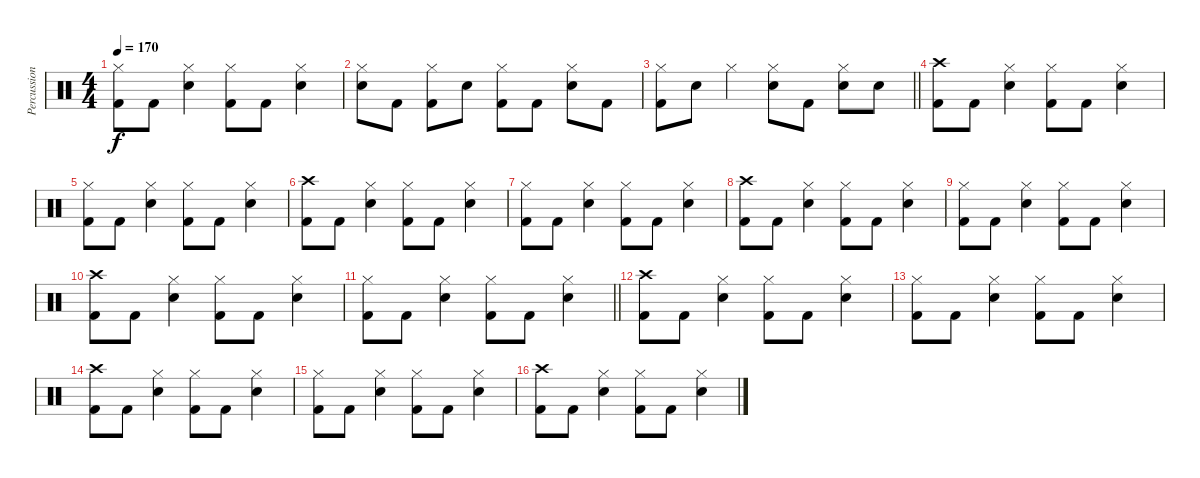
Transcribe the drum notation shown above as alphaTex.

\track ("Percussion" "Percussion") {instrument percussion}
\staff {score}
\articulation defaults
\ts (4 4)
\tempo 170
\clef neutral
\ks c
("Hi-Hat (closed)" "Kick (hit) 2").8{dy f} "Kick (hit) 2".8 ("Hi-Hat (closed)" "Electric Snare (hit)").4 ("Hi-Hat (closed)" "Kick (hit) 2").8 "Kick (hit) 2".8 ("Hi-Hat (closed)" "Electric Snare (hit)").4 |
("Hi-Hat (closed)" "Electric Snare (hit)").8 "Kick (hit) 2".8 ("Hi-Hat (closed)" "Kick (hit) 2").8 "Electric Snare (hit)".8 ("Hi-Hat (closed)" "Kick (hit) 2").8 "Kick (hit) 2".8 ("Hi-Hat (closed)" "Electric Snare (hit)").8 "Kick (hit) 2".8 |
\barLineRight lightlight
("Hi-Hat (closed)" "Kick (hit) 2").8 "Electric Snare (hit)".8 "Hi-Hat (closed)".4 ("Hi-Hat (closed)" "Electric Snare (hit)").8 "Kick (hit) 2".8 ("Hi-Hat (closed)" "Electric Snare (hit)").8 "Electric Snare (hit)".8 |
("Crash high (hit)" "Kick (hit) 2").8 "Kick (hit) 2".8 ("Hi-Hat (closed)" "Electric Snare (hit)").4 ("Hi-Hat (closed)" "Kick (hit) 2").8 "Kick (hit) 2".8 ("Hi-Hat (closed)" "Electric Snare (hit)").4 |
("Hi-Hat (closed)" "Kick (hit) 2").8 "Kick (hit) 2".8 ("Hi-Hat (closed)" "Electric Snare (hit)").4 ("Hi-Hat (closed)" "Kick (hit) 2").8 "Kick (hit) 2".8 ("Hi-Hat (closed)" "Electric Snare (hit)").4 |
("Crash high (hit)" "Kick (hit) 2").8 "Kick (hit) 2".8 ("Hi-Hat (closed)" "Electric Snare (hit)").4 ("Hi-Hat (closed)" "Kick (hit) 2").8 "Kick (hit) 2".8 ("Hi-Hat (closed)" "Electric Snare (hit)").4 |
("Hi-Hat (closed)" "Kick (hit) 2").8 "Kick (hit) 2".8 ("Hi-Hat (closed)" "Electric Snare (hit)").4 ("Hi-Hat (closed)" "Kick (hit) 2").8 "Kick (hit) 2".8 ("Hi-Hat (closed)" "Electric Snare (hit)").4 |
("Crash high (hit)" "Kick (hit) 2").8 "Kick (hit) 2".8 ("Hi-Hat (closed)" "Electric Snare (hit)").4 ("Hi-Hat (closed)" "Kick (hit) 2").8 "Kick (hit) 2".8 ("Hi-Hat (closed)" "Electric Snare (hit)").4 |
("Hi-Hat (closed)" "Kick (hit) 2").8 "Kick (hit) 2".8 ("Hi-Hat (closed)" "Electric Snare (hit)").4 ("Hi-Hat (closed)" "Kick (hit) 2").8 "Kick (hit) 2".8 ("Hi-Hat (closed)" "Electric Snare (hit)").4 |
("Crash high (hit)" "Kick (hit) 2").8 "Kick (hit) 2".8 ("Hi-Hat (closed)" "Electric Snare (hit)").4 ("Hi-Hat (closed)" "Kick (hit) 2").8 "Kick (hit) 2".8 ("Hi-Hat (closed)" "Electric Snare (hit)").4 |
\barLineRight lightlight
("Hi-Hat (closed)" "Kick (hit) 2").8 "Kick (hit) 2".8 ("Hi-Hat (closed)" "Electric Snare (hit)").4 ("Hi-Hat (closed)" "Kick (hit) 2").8 "Kick (hit) 2".8 ("Hi-Hat (closed)" "Electric Snare (hit)").4 |
("Crash high (hit)" "Kick (hit) 2").8 "Kick (hit) 2".8 ("Hi-Hat (closed)" "Electric Snare (hit)").4 ("Hi-Hat (closed)" "Kick (hit) 2").8 "Kick (hit) 2".8 ("Hi-Hat (closed)" "Electric Snare (hit)").4 |
("Hi-Hat (closed)" "Kick (hit) 2").8 "Kick (hit) 2".8 ("Hi-Hat (closed)" "Electric Snare (hit)").4 ("Hi-Hat (closed)" "Kick (hit) 2").8 "Kick (hit) 2".8 ("Hi-Hat (closed)" "Electric Snare (hit)").4 |
("Crash high (hit)" "Kick (hit) 2").8 "Kick (hit) 2".8 ("Hi-Hat (closed)" "Electric Snare (hit)").4 ("Hi-Hat (closed)" "Kick (hit) 2").8 "Kick (hit) 2".8 ("Hi-Hat (closed)" "Electric Snare (hit)").4 |
("Hi-Hat (closed)" "Kick (hit) 2").8 "Kick (hit) 2".8 ("Hi-Hat (closed)" "Electric Snare (hit)").4 ("Hi-Hat (closed)" "Kick (hit) 2").8 "Kick (hit) 2".8 ("Hi-Hat (closed)" "Electric Snare (hit)").4 |
("Crash high (hit)" "Kick (hit) 2").8 "Kick (hit) 2".8 ("Hi-Hat (closed)" "Electric Snare (hit)").4 ("Hi-Hat (closed)" "Kick (hit) 2").8 "Kick (hit) 2".8 ("Hi-Hat (closed)" "Electric Snare (hit)").4
